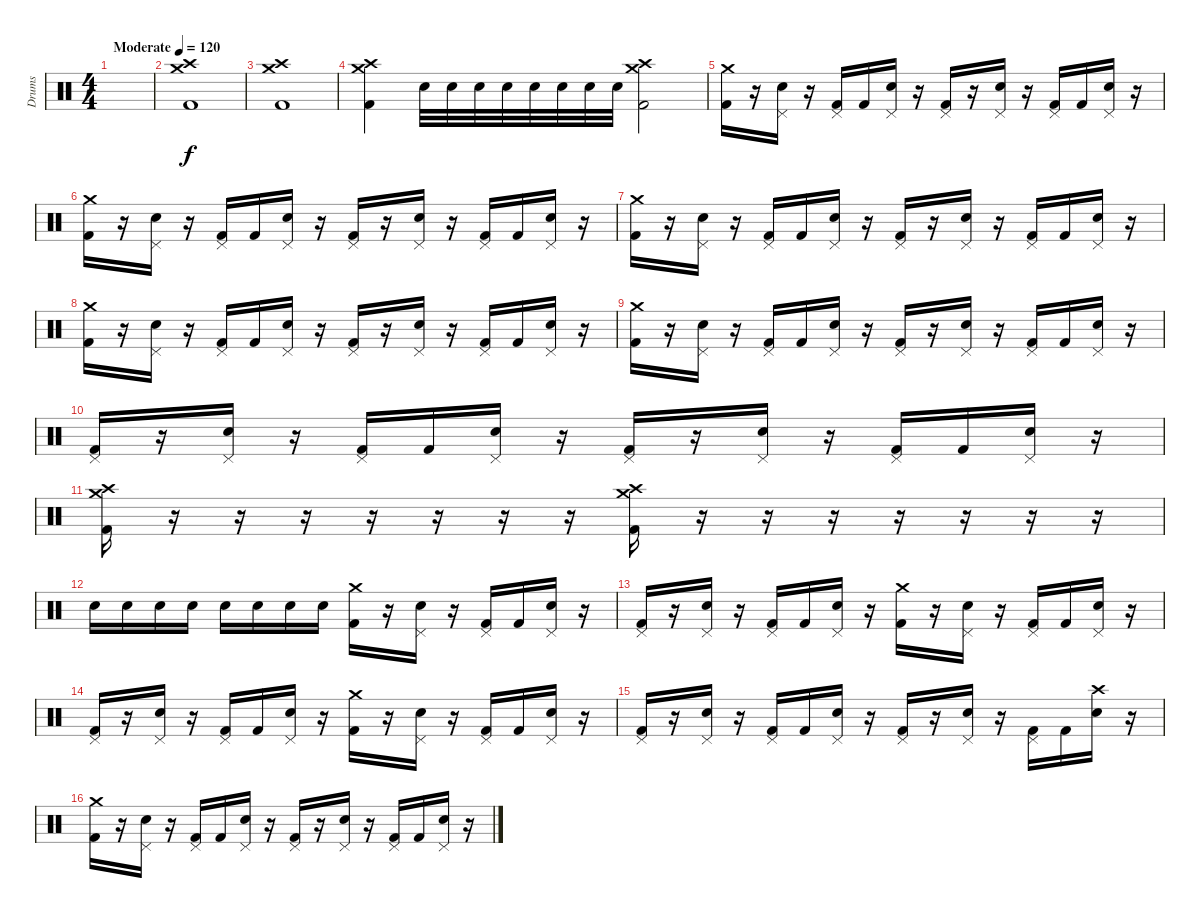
\track ("Drums" "Drums") {instrument percussion}
\staff {score}
\articulation defaults
\ts (4 4)
\tempo (120 "Moderate")
\clef neutral
\ks c
|
("Crash medium (hit)" "Crash high (hit)" "Kick (hit) 2").1 |
("Crash medium (hit)" "Crash high (hit)" "Kick (hit) 2").1 |
("Crash medium (hit)" "Crash high (hit)" "Kick (hit) 2").4 "Snare (hit) 2".32 "Snare (hit) 2".32 "Snare (hit) 2".32 "Snare (hit) 2".32 "Snare (hit) 2".32 "Snare (hit) 2".32 "Snare (hit) 2".32 "Snare (hit) 2".32 ("Crash medium (hit)" "Crash high (hit)" "Kick (hit) 2").2 |
("Crash medium (hit)" "Kick (hit) 2").16 r.16 ("Pedal Hi-Hat (hit)" "Snare (hit) 2").16 r.16 ("Pedal Hi-Hat (hit)" "Kick (hit) 2").16 "Kick (hit) 2".16 ("Pedal Hi-Hat (hit)" "Snare (hit) 2").16 r.16 ("Pedal Hi-Hat (hit)" "Kick (hit) 2").16 r.16 ("Pedal Hi-Hat (hit)" "Snare (hit) 2").16 r.16 ("Pedal Hi-Hat (hit)" "Kick (hit) 2").16 "Kick (hit) 2".16 ("Pedal Hi-Hat (hit)" "Snare (hit) 2").16 r.16 |
("Crash medium (hit)" "Kick (hit) 2").16 r.16 ("Pedal Hi-Hat (hit)" "Snare (hit) 2").16 r.16 ("Pedal Hi-Hat (hit)" "Kick (hit) 2").16 "Kick (hit) 2".16 ("Pedal Hi-Hat (hit)" "Snare (hit) 2").16 r.16 ("Pedal Hi-Hat (hit)" "Kick (hit) 2").16 r.16 ("Pedal Hi-Hat (hit)" "Snare (hit) 2").16 r.16 ("Pedal Hi-Hat (hit)" "Kick (hit) 2").16 "Kick (hit) 2".16 ("Pedal Hi-Hat (hit)" "Snare (hit) 2").16 r.16 |
("Crash medium (hit)" "Kick (hit) 2").16 r.16 ("Pedal Hi-Hat (hit)" "Snare (hit) 2").16 r.16 ("Pedal Hi-Hat (hit)" "Kick (hit) 2").16 "Kick (hit) 2".16 ("Pedal Hi-Hat (hit)" "Snare (hit) 2").16 r.16 ("Pedal Hi-Hat (hit)" "Kick (hit) 2").16 r.16 ("Pedal Hi-Hat (hit)" "Snare (hit) 2").16 r.16 ("Pedal Hi-Hat (hit)" "Kick (hit) 2").16 "Kick (hit) 2".16 ("Pedal Hi-Hat (hit)" "Snare (hit) 2").16 r.16 |
("Crash medium (hit)" "Kick (hit) 2").16 r.16 ("Pedal Hi-Hat (hit)" "Snare (hit) 2").16 r.16 ("Pedal Hi-Hat (hit)" "Kick (hit) 2").16 "Kick (hit) 2".16 ("Pedal Hi-Hat (hit)" "Snare (hit) 2").16 r.16 ("Pedal Hi-Hat (hit)" "Kick (hit) 2").16 r.16 ("Pedal Hi-Hat (hit)" "Snare (hit) 2").16 r.16 ("Pedal Hi-Hat (hit)" "Kick (hit) 2").16 "Kick (hit) 2".16 ("Pedal Hi-Hat (hit)" "Snare (hit) 2").16 r.16 |
("Crash medium (hit)" "Kick (hit) 2").16 r.16 ("Pedal Hi-Hat (hit)" "Snare (hit) 2").16 r.16 ("Pedal Hi-Hat (hit)" "Kick (hit) 2").16 "Kick (hit) 2".16 ("Pedal Hi-Hat (hit)" "Snare (hit) 2").16 r.16 ("Pedal Hi-Hat (hit)" "Kick (hit) 2").16 r.16 ("Pedal Hi-Hat (hit)" "Snare (hit) 2").16 r.16 ("Pedal Hi-Hat (hit)" "Kick (hit) 2").16 "Kick (hit) 2".16 ("Pedal Hi-Hat (hit)" "Snare (hit) 2").16 r.16 |
("Pedal Hi-Hat (hit)" "Kick (hit) 2").16 r.16 ("Pedal Hi-Hat (hit)" "Snare (hit) 2").16 r.16 ("Pedal Hi-Hat (hit)" "Kick (hit) 2").16 "Kick (hit) 2".16 ("Pedal Hi-Hat (hit)" "Snare (hit) 2").16 r.16 ("Pedal Hi-Hat (hit)" "Kick (hit) 2").16 r.16 ("Pedal Hi-Hat (hit)" "Snare (hit) 2").16 r.16 ("Pedal Hi-Hat (hit)" "Kick (hit) 2").16 "Kick (hit) 2".16 ("Pedal Hi-Hat (hit)" "Snare (hit) 2").16 r.16 |
("Crash medium (hit)" "Crash high (hit)" "Kick (hit) 2").16 r.16 r.16 r.16 r.16 r.16 r.16 r.16 ("Crash medium (hit)" "Crash high (hit)" "Kick (hit) 2").16 r.16 r.16 r.16 r.16 r.16 r.16 r.16 |
"Snare (hit) 2".16 "Snare (hit) 2".16 "Snare (hit) 2".16 "Snare (hit) 2".16 "Snare (hit) 2".16 "Snare (hit) 2".16 "Snare (hit) 2".16 "Snare (hit) 2".16 ("Crash medium (hit)" "Kick (hit) 2").16 r.16 ("Pedal Hi-Hat (hit)" "Snare (hit) 2").16 r.16 ("Pedal Hi-Hat (hit)" "Kick (hit) 2").16 "Kick (hit) 2".16 ("Pedal Hi-Hat (hit)" "Snare (hit) 2").16 r.16 |
("Pedal Hi-Hat (hit)" "Kick (hit) 2").16 r.16 ("Pedal Hi-Hat (hit)" "Snare (hit) 2").16 r.16 ("Pedal Hi-Hat (hit)" "Kick (hit) 2").16 "Kick (hit) 2".16 ("Pedal Hi-Hat (hit)" "Snare (hit) 2").16 r.16 ("Crash medium (hit)" "Kick (hit) 2").16 r.16 ("Pedal Hi-Hat (hit)" "Snare (hit) 2").16 r.16 ("Pedal Hi-Hat (hit)" "Kick (hit) 2").16 "Kick (hit) 2".16 ("Pedal Hi-Hat (hit)" "Snare (hit) 2").16 r.16 |
("Pedal Hi-Hat (hit)" "Kick (hit) 2").16 r.16 ("Pedal Hi-Hat (hit)" "Snare (hit) 2").16 r.16 ("Pedal Hi-Hat (hit)" "Kick (hit) 2").16 "Kick (hit) 2".16 ("Pedal Hi-Hat (hit)" "Snare (hit) 2").16 r.16 ("Crash medium (hit)" "Kick (hit) 2").16 r.16 ("Pedal Hi-Hat (hit)" "Snare (hit) 2").16 r.16 ("Pedal Hi-Hat (hit)" "Kick (hit) 2").16 "Kick (hit) 2".16 ("Pedal Hi-Hat (hit)" "Snare (hit) 2").16 r.16 |
("Pedal Hi-Hat (hit)" "Kick (hit) 2").16 r.16 ("Pedal Hi-Hat (hit)" "Snare (hit) 2").16 r.16 ("Pedal Hi-Hat (hit)" "Kick (hit) 2").16 "Kick (hit) 2".16 ("Pedal Hi-Hat (hit)" "Snare (hit) 2").16 r.16 ("Pedal Hi-Hat (hit)" "Kick (hit) 2").16 r.16 ("Pedal Hi-Hat (hit)" "Snare (hit) 2").16 r.16 ("Pedal Hi-Hat (hit)" "Kick (hit) 2").16 "Kick (hit) 2".16 ("Crash high (hit)" "Snare (hit) 2").16 r.16 |
("Crash medium (hit)" "Kick (hit) 2").16 r.16 ("Pedal Hi-Hat (hit)" "Snare (hit) 2").16 r.16 ("Pedal Hi-Hat (hit)" "Kick (hit) 2").16 "Kick (hit) 2".16 ("Pedal Hi-Hat (hit)" "Snare (hit) 2").16 r.16 ("Pedal Hi-Hat (hit)" "Kick (hit) 2").16 r.16 ("Pedal Hi-Hat (hit)" "Snare (hit) 2").16 r.16 ("Pedal Hi-Hat (hit)" "Kick (hit) 2").16 "Kick (hit) 2".16 ("Pedal Hi-Hat (hit)" "Snare (hit) 2").16 r.16
